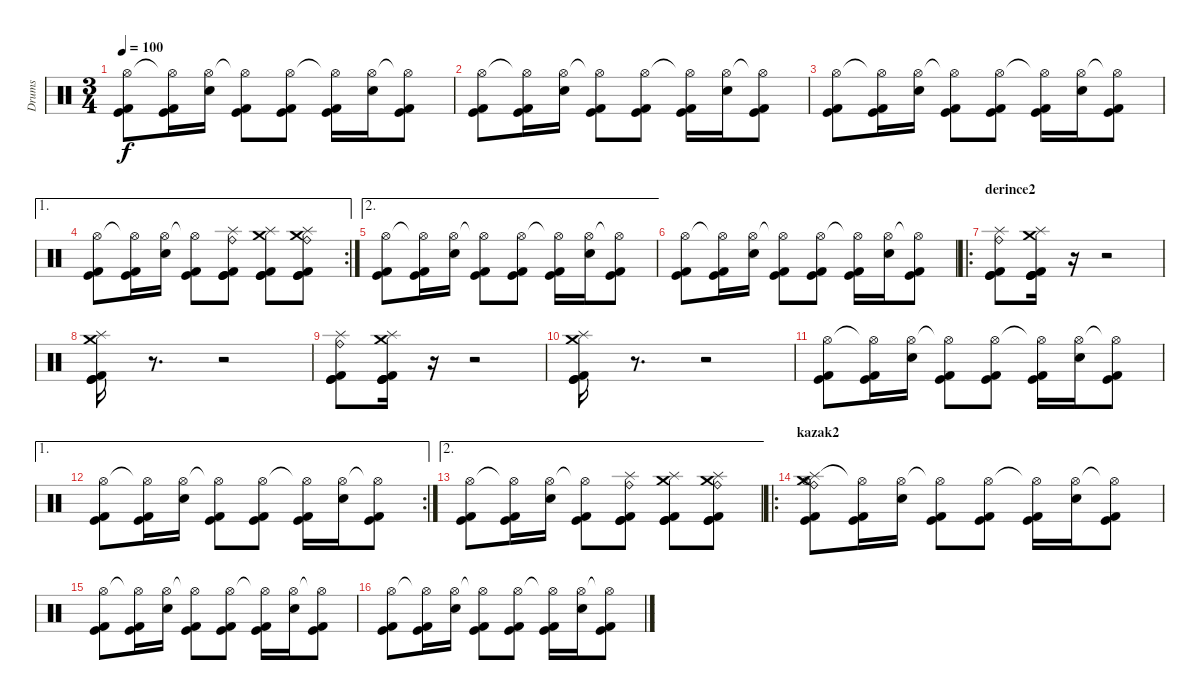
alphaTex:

\track ("Drums" "Drums") {instrument percussion}
\staff {score}
\articulation defaults
\ts (3 4)
\tempo 100
\clef neutral
\ks c
("Hi-Hat (open)" "Kick (hit)" "Kick (hit) 2").8{dy f} ("Hi-Hat (open)"{t} "Kick (hit)" "Kick (hit) 2").16 ("Hi-Hat (open)" "Snare (hit) 2").16 ("Hi-Hat (open)"{t} "Kick (hit)" "Kick (hit) 2").8 ("Hi-Hat (open)" "Kick (hit)" "Kick (hit) 2").8 ("Hi-Hat (open)"{t} "Kick (hit)" "Kick (hit) 2").16 ("Hi-Hat (open)" "Snare (hit) 2").16 ("Hi-Hat (open)"{t} "Kick (hit)" "Kick (hit) 2").8 |
("Hi-Hat (open)" "Kick (hit)" "Kick (hit) 2").8 ("Hi-Hat (open)"{t} "Kick (hit)" "Kick (hit) 2").16 ("Hi-Hat (open)" "Snare (hit) 2").16 ("Hi-Hat (open)"{t} "Kick (hit)" "Kick (hit) 2").8 ("Hi-Hat (open)" "Kick (hit)" "Kick (hit) 2").8 ("Hi-Hat (open)"{t} "Kick (hit)" "Kick (hit) 2").16 ("Hi-Hat (open)" "Snare (hit) 2").16 ("Hi-Hat (open)"{t} "Kick (hit)" "Kick (hit) 2").8 |
("Hi-Hat (open)" "Kick (hit)" "Kick (hit) 2").8 ("Hi-Hat (open)"{t} "Kick (hit)" "Kick (hit) 2").16 ("Hi-Hat (open)" "Snare (hit) 2").16 ("Hi-Hat (open)"{t} "Kick (hit)" "Kick (hit) 2").8 ("Hi-Hat (open)" "Kick (hit)" "Kick (hit) 2").8 ("Hi-Hat (open)"{t} "Kick (hit)" "Kick (hit) 2").16 ("Hi-Hat (open)" "Snare (hit) 2").16 ("Hi-Hat (open)"{t} "Kick (hit)" "Kick (hit) 2").8 |
\ae 1
\rc 2
("Hi-Hat (open)" "Kick (hit)" "Kick (hit) 2").8 ("Hi-Hat (open)"{t} "Kick (hit)" "Kick (hit) 2").16 ("Hi-Hat (open)" "Snare (hit) 2").16 ("Hi-Hat (open)"{t} "Kick (hit)" "Kick (hit) 2").8 ("Splash (hit)" "Ride (bell)" "Kick (hit)" "Kick (hit)" "Kick (hit) 2").8 ("Crash medium (hit)" "Splash (hit)" "Kick (hit)" "Kick (hit)" "Kick (hit) 2").8 ("Crash medium (hit)" "Ride (bell)" "Splash (hit)" "Kick (hit)" "Kick (hit)" "Kick (hit) 2").8 |
\ae 2
("Hi-Hat (open)" "Kick (hit)" "Kick (hit) 2").8 ("Hi-Hat (open)"{t} "Kick (hit)" "Kick (hit) 2").16 ("Hi-Hat (open)" "Snare (hit) 2").16 ("Hi-Hat (open)"{t} "Kick (hit)" "Kick (hit) 2").8 ("Hi-Hat (open)" "Kick (hit)" "Kick (hit) 2").8 ("Hi-Hat (open)"{t} "Kick (hit)" "Kick (hit) 2").16 ("Hi-Hat (open)" "Snare (hit) 2").16 ("Hi-Hat (open)"{t} "Kick (hit)" "Kick (hit) 2").8 |
("Hi-Hat (open)" "Kick (hit)" "Kick (hit) 2").8 ("Hi-Hat (open)"{t} "Kick (hit)" "Kick (hit) 2").16 ("Hi-Hat (open)" "Snare (hit) 2").16 ("Hi-Hat (open)"{t} "Kick (hit)" "Kick (hit) 2").8 ("Hi-Hat (open)" "Kick (hit)" "Kick (hit) 2").8 ("Hi-Hat (open)"{t} "Kick (hit)" "Kick (hit) 2").16 ("Hi-Hat (open)" "Snare (hit) 2").16 ("Hi-Hat (open)"{t} "Kick (hit)" "Kick (hit) 2").8 |
\ro
\section ("" "derince2")
("Splash (hit)" "Ride (bell)" "Kick (hit) 2" "Kick (hit)" "Kick (hit)").8 ("Crash medium (hit)" "Splash (hit)" "Kick (hit) 2" "Kick (hit)" "Kick (hit)" "Kick (hit)").16 r.16 r.2 |
("Splash (hit)" "Crash medium (hit)" "Kick (hit) 2" "Kick (hit)" "Kick (hit)").16 r.8{d} r.2 |
("Splash (hit)" "Ride (bell)" "Kick (hit) 2" "Kick (hit)" "Kick (hit)").8 ("Crash medium (hit)" "Splash (hit)" "Kick (hit) 2" "Kick (hit)" "Kick (hit)" "Kick (hit)").16 r.16 r.2 |
("Splash (hit)" "Crash medium (hit)" "Kick (hit) 2" "Kick (hit)" "Kick (hit)").16 r.8{d} r.2 |
("Hi-Hat (open)" "Kick (hit)" "Kick (hit) 2").8 ("Hi-Hat (open)"{t} "Kick (hit)" "Kick (hit) 2").16 ("Hi-Hat (open)" "Snare (hit) 2").16 ("Hi-Hat (open)"{t} "Kick (hit)" "Kick (hit) 2").8 ("Hi-Hat (open)" "Kick (hit)" "Kick (hit) 2").8 ("Hi-Hat (open)"{t} "Kick (hit)" "Kick (hit) 2").16 ("Hi-Hat (open)" "Snare (hit) 2").16 ("Hi-Hat (open)"{t} "Kick (hit)" "Kick (hit) 2").8 |
\ae 1
\rc 2
("Hi-Hat (open)" "Kick (hit)" "Kick (hit) 2").8 ("Hi-Hat (open)"{t} "Kick (hit)" "Kick (hit) 2").16 ("Hi-Hat (open)" "Snare (hit) 2").16 ("Hi-Hat (open)"{t} "Kick (hit)" "Kick (hit) 2").8 ("Hi-Hat (open)" "Kick (hit)" "Kick (hit) 2").8 ("Hi-Hat (open)"{t} "Kick (hit)" "Kick (hit) 2").16 ("Hi-Hat (open)" "Snare (hit) 2").16 ("Hi-Hat (open)"{t} "Kick (hit)" "Kick (hit) 2").8 |
\ae 2
("Hi-Hat (open)" "Kick (hit)" "Kick (hit) 2").8 ("Hi-Hat (open)"{t} "Kick (hit)" "Kick (hit) 2").16 ("Hi-Hat (open)" "Snare (hit) 2").16 ("Hi-Hat (open)"{t} "Kick (hit)" "Kick (hit) 2").8 ("Splash (hit)" "Ride (bell)" "Kick (hit)" "Kick (hit)" "Kick (hit) 2").8 ("Crash medium (hit)" "Splash (hit)" "Kick (hit)" "Kick (hit)" "Kick (hit) 2").8 ("Crash medium (hit)" "Ride (bell)" "Splash (hit)" "Kick (hit)" "Kick (hit)" "Kick (hit) 2").8 |
\ro
\section ("" "kazak2")
("Splash (hit)" "Crash medium (hit)" "Hi-Hat (open)" "Kick (hit)" "Kick (hit) 2" "Ride (bell)").8 ("Hi-Hat (open)"{t} "Kick (hit)" "Kick (hit) 2").16 ("Hi-Hat (open)" "Snare (hit) 2").16 ("Hi-Hat (open)"{t} "Kick (hit)" "Kick (hit) 2").8 ("Hi-Hat (open)" "Kick (hit)" "Kick (hit) 2").8 ("Hi-Hat (open)"{t} "Kick (hit)" "Kick (hit) 2").16 ("Hi-Hat (open)" "Snare (hit) 2").16 ("Hi-Hat (open)"{t} "Kick (hit)" "Kick (hit) 2").8 |
("Hi-Hat (open)" "Kick (hit)" "Kick (hit) 2").8 ("Hi-Hat (open)"{t} "Kick (hit)" "Kick (hit) 2").16 ("Hi-Hat (open)" "Snare (hit) 2").16 ("Hi-Hat (open)"{t} "Kick (hit)" "Kick (hit) 2").8 ("Hi-Hat (open)" "Kick (hit)" "Kick (hit) 2").8 ("Hi-Hat (open)"{t} "Kick (hit)" "Kick (hit) 2").16 ("Hi-Hat (open)" "Snare (hit) 2").16 ("Hi-Hat (open)"{t} "Kick (hit)" "Kick (hit) 2").8 |
("Hi-Hat (open)" "Kick (hit)" "Kick (hit) 2").8 ("Hi-Hat (open)"{t} "Kick (hit)" "Kick (hit) 2").16 ("Hi-Hat (open)" "Snare (hit) 2").16 ("Hi-Hat (open)"{t} "Kick (hit)" "Kick (hit) 2").8 ("Hi-Hat (open)" "Kick (hit)" "Kick (hit) 2").8 ("Hi-Hat (open)"{t} "Kick (hit)" "Kick (hit) 2").16 ("Hi-Hat (open)" "Snare (hit) 2").16 ("Hi-Hat (open)"{t} "Kick (hit)" "Kick (hit) 2").8
